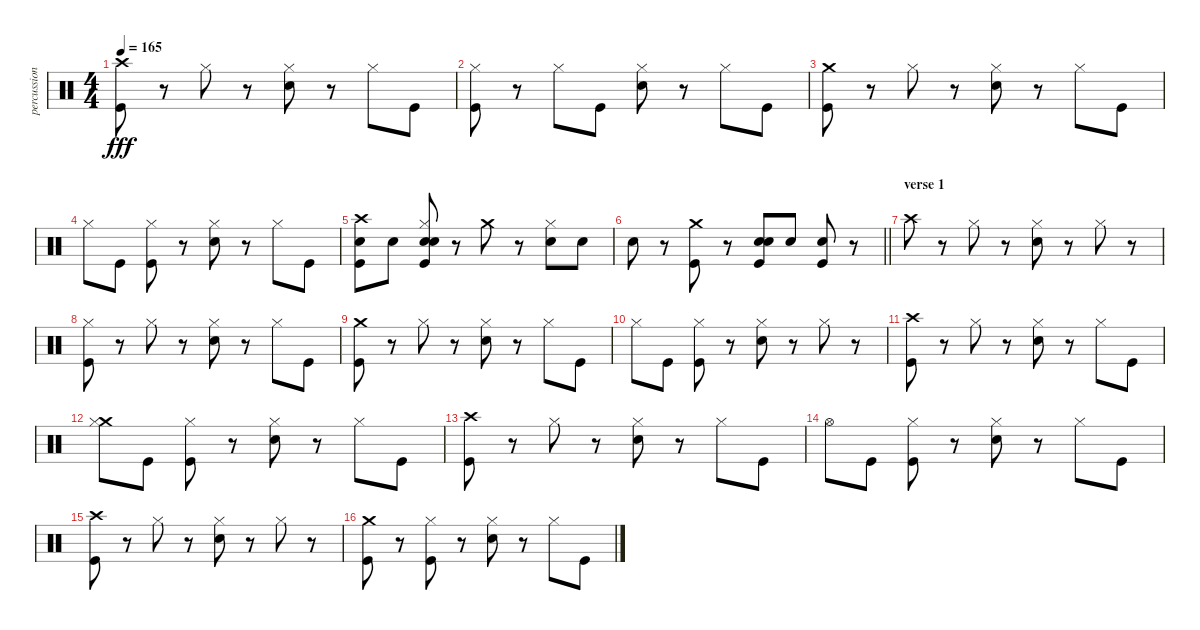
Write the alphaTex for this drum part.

\track ("percussion (Paice)" "percussion") {instrument percussion}
\staff {score}
\articulation defaults
\ts (4 4)
\tempo 165
\clef neutral
\ks c
("Crash high (hit)" "Kick (hit)").8{dy fff} r.8 "Hi-Hat (closed)".8 r.8 ("Snare (hit) 2" "Hi-Hat (closed)").8 r.8 "Hi-Hat (closed)".8 "Kick (hit)".8 |
("Kick (hit)" "Hi-Hat (closed)").8 r.8 "Hi-Hat (closed)".8 "Kick (hit)".8 ("Snare (hit) 2" "Hi-Hat (closed)").8 r.8 "Hi-Hat (closed)".8 "Kick (hit)".8 |
("Crash medium (hit)" "Kick (hit)").8 r.8 "Hi-Hat (closed)".8 r.8 ("Snare (hit) 2" "Hi-Hat (closed)").8 r.8 "Hi-Hat (closed)".8 "Kick (hit)".8 |
"Hi-Hat (closed)".8 "Kick (hit)".8 ("Kick (hit)" "Hi-Hat (closed)").8 r.8 ("Snare (hit) 2" "Hi-Hat (closed)").8 r.8 "Hi-Hat (closed)".8 "Kick (hit)".8 |
("Snare (hit) 2" "Crash high (hit)" "Kick (hit)").8 "Snare (hit) 2".8 ("Snare (hit) 2" "Snare (hit) 2" "Kick (hit)" "Hi-Hat (closed)").8 r.8 "Crash medium (hit)".8 r.8 ("Snare (hit) 2" "Hi-Hat (closed)").8 "Snare (hit) 2".8 |
\barLineRight lightlight "Snare (hit) 2".8
r.8 ("Kick (hit)" "Crash medium (hit)").8 r.8 ("Snare (hit) 2" "Kick (hit)" "Snare (hit) 2").8 "Snare (hit) 2".8 ("Snare (hit) 2" "Kick (hit)").8 r.8 |
\section ("" "verse 1")
"Crash high (hit)".8 r.8 "Hi-Hat (closed)".8 r.8 ("Snare (hit) 2" "Hi-Hat (closed)").8 r.8 "Hi-Hat (closed)".8 r.8 |
("Kick (hit)" "Hi-Hat (closed)").8 r.8 "Hi-Hat (closed)".8 r.8 ("Snare (hit) 2" "Hi-Hat (closed)").8 r.8 "Hi-Hat (closed)".8 "Kick (hit)".8 |
("Crash medium (hit)" "Kick (hit)").8 r.8 "Hi-Hat (closed)".8 r.8 ("Snare (hit) 2" "Hi-Hat (closed)").8 r.8 "Hi-Hat (closed)".8 "Kick (hit)".8 |
"Hi-Hat (closed)".8 "Kick (hit)".8 ("Kick (hit)" "Hi-Hat (closed)").8 r.8 ("Snare (hit) 2" "Hi-Hat (closed)").8 r.8 "Hi-Hat (closed)".8 r.8 |
("Crash high (hit)" "Kick (hit)").8 r.8 "Hi-Hat (closed)".8 r.8 ("Snare (hit) 2" "Hi-Hat (closed)").8 r.8 "Hi-Hat (closed)".8 "Kick (hit)".8 |
("Crash medium (hit)" "Hi-Hat (closed)").8 "Kick (hit)".8 ("Kick (hit)" "Hi-Hat (closed)").8 r.8 ("Snare (hit) 2" "Hi-Hat (closed)").8 r.8 "Hi-Hat (closed)".8 "Kick (hit)".8 |
("Crash high (hit)" "Kick (hit)").8 r.8 "Hi-Hat (closed)".8 r.8 ("Snare (hit) 2" "Hi-Hat (closed)").8 r.8 "Hi-Hat (closed)".8 "Kick (hit)".8 |
"Hi-Hat (open)".8 "Kick (hit)".8 ("Kick (hit)" "Hi-Hat (closed)").8 r.8 ("Snare (hit) 2" "Hi-Hat (closed)").8 r.8 "Hi-Hat (closed)".8 "Kick (hit)".8 |
("Crash high (hit)" "Kick (hit)").8 r.8 "Hi-Hat (closed)".8 r.8 ("Snare (hit) 2" "Hi-Hat (closed)").8 r.8 "Hi-Hat (closed)".8 r.8 |
("Kick (hit)" "Crash medium (hit)").8 r.8 ("Kick (hit)" "Hi-Hat (closed)").8 r.8 ("Snare (hit) 2" "Hi-Hat (closed)").8 r.8 "Hi-Hat (closed)".8 "Kick (hit)".8
